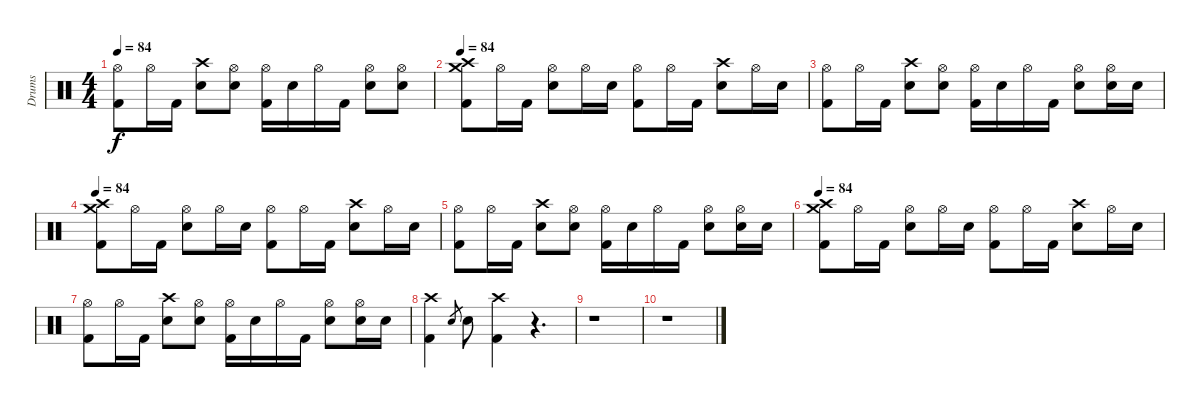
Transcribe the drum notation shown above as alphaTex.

\track ("Drums" "Drums") {instrument percussion}
\staff {score}
\articulation defaults
\ts (4 4)
\tempo 84
\clef neutral
\ks c
("Hi-Hat (open)" "Kick (hit) 2").8{dy f} "Hi-Hat (open)".16 "Kick (hit) 2".16 ("Crash high (hit)" "Electric Snare (hit)").8 ("Hi-Hat (open)" "Electric Snare (hit)").8 ("Hi-Hat (open)" "Kick (hit) 2").16 "Electric Snare (hit)".16 "Hi-Hat (open)".16 "Kick (hit) 2".16 ("Hi-Hat (open)" "Electric Snare (hit)").8 ("Hi-Hat (open)" "Electric Snare (hit)").8 |
\tempo 84
("Crash high (hit)" "Crash medium (hit)" "Kick (hit) 2").8 "Hi-Hat (open)".16 "Kick (hit) 2".16 ("Hi-Hat (open)" "Electric Snare (hit)").8 "Hi-Hat (open)".16 "Electric Snare (hit)".16 ("Hi-Hat (open)" "Kick (hit) 2").8 "Hi-Hat (open)".16 "Kick (hit) 2".16 ("Crash high (hit)" "Electric Snare (hit)").8 "Hi-Hat (open)".16 "Electric Snare (hit)".16 |
("Hi-Hat (open)" "Kick (hit) 2").8 "Hi-Hat (open)".16 "Kick (hit) 2".16 ("Crash high (hit)" "Electric Snare (hit)").8 ("Hi-Hat (open)" "Electric Snare (hit)").8 ("Hi-Hat (open)" "Kick (hit) 2").16 "Electric Snare (hit)".16 "Hi-Hat (open)".16 "Kick (hit) 2".16 ("Hi-Hat (open)" "Electric Snare (hit)").8 ("Hi-Hat (open)" "Electric Snare (hit)").16 "Electric Snare (hit)".16 |
\tempo 84
("Crash high (hit)" "Crash medium (hit)" "Kick (hit) 2").8 "Hi-Hat (open)".16 "Kick (hit) 2".16 ("Hi-Hat (open)" "Electric Snare (hit)").8 "Hi-Hat (open)".16 "Electric Snare (hit)".16 ("Hi-Hat (open)" "Kick (hit) 2").8 "Hi-Hat (open)".16 "Kick (hit) 2".16 ("Crash high (hit)" "Electric Snare (hit)").8 "Hi-Hat (open)".16 "Electric Snare (hit)".16 |
("Hi-Hat (open)" "Kick (hit) 2").8 "Hi-Hat (open)".16 "Kick (hit) 2".16 ("Crash high (hit)" "Electric Snare (hit)").8 ("Hi-Hat (open)" "Electric Snare (hit)").8 ("Hi-Hat (open)" "Kick (hit) 2").16 "Electric Snare (hit)".16 "Hi-Hat (open)".16 "Kick (hit) 2".16 ("Hi-Hat (open)" "Electric Snare (hit)").8 ("Hi-Hat (open)" "Electric Snare (hit)").16 "Electric Snare (hit)".16 |
\tempo 84
("Crash high (hit)" "Crash medium (hit)" "Kick (hit) 2").8 "Hi-Hat (open)".16 "Kick (hit) 2".16 ("Hi-Hat (open)" "Electric Snare (hit)").8 "Hi-Hat (open)".16 "Electric Snare (hit)".16 ("Hi-Hat (open)" "Kick (hit) 2").8 "Hi-Hat (open)".16 "Kick (hit) 2".16 ("Crash high (hit)" "Electric Snare (hit)").8 "Hi-Hat (open)".16 "Electric Snare (hit)".16 |
("Hi-Hat (open)" "Kick (hit) 2").8 "Hi-Hat (open)".16 "Kick (hit) 2".16 ("Crash high (hit)" "Electric Snare (hit)").8 ("Hi-Hat (open)" "Electric Snare (hit)").8 ("Hi-Hat (open)" "Kick (hit) 2").16 "Electric Snare (hit)".16 "Hi-Hat (open)".16 "Kick (hit) 2".16 ("Hi-Hat (open)" "Electric Snare (hit)").8 ("Hi-Hat (open)" "Electric Snare (hit)").16 "Electric Snare (hit)".16 |
("Crash high (hit)" "Kick (hit) 2").4 "Electric Snare (hit)".8{gr} "Electric Snare (hit)".8 ("Crash high (hit)" "Kick (hit) 2").4 r.4{d} |
r.1 |
r.1
